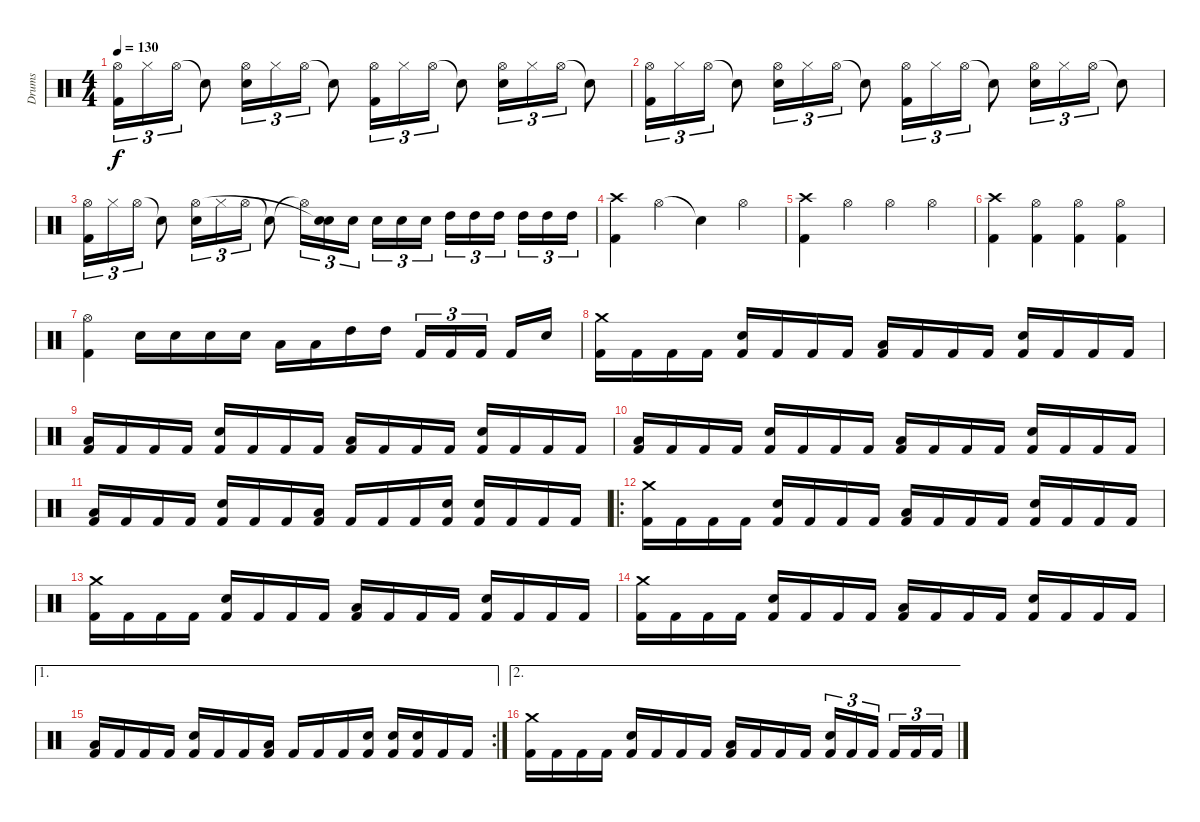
\track ("Drums" "Drums") {instrument percussion}
\staff {score}
\articulation defaults
\ts (4 4)
\tempo 130
\clef neutral
\ks c
("Kick (hit) 2" "Hi-Hat (open)").16{tu (3 2) dy f} "Hi-Hat (closed)".16{tu (3 2)} "Hi-Hat (open)".16{tu (3 2)} "Snare (hit)"{t}.8 ("Snare (hit) 2" "Hi-Hat (open)").16{tu (3 2)} "Hi-Hat (closed)".16{tu (3 2)} "Hi-Hat (open)".16{tu (3 2)} "Snare (hit)"{t}.8 ("Kick (hit) 2" "Hi-Hat (open)").16{tu (3 2)} "Hi-Hat (closed)".16{tu (3 2)} "Hi-Hat (open)".16{tu (3 2)} "Snare (hit)"{t}.8 ("Snare (hit) 2" "Hi-Hat (open)").16{tu (3 2)} "Hi-Hat (closed)".16{tu (3 2)} "Hi-Hat (open)".16{tu (3 2)} "Snare (hit)"{t}.8 |
("Kick (hit) 2" "Hi-Hat (open)").16{tu (3 2)} "Hi-Hat (closed)".16{tu (3 2)} "Hi-Hat (open)".16{tu (3 2)} "Snare (hit)"{t}.8 ("Snare (hit) 2" "Hi-Hat (open)").16{tu (3 2)} "Hi-Hat (closed)".16{tu (3 2)} "Hi-Hat (open)".16{tu (3 2)} "Snare (hit)"{t}.8 ("Kick (hit) 2" "Hi-Hat (open)").16{tu (3 2)} "Hi-Hat (closed)".16{tu (3 2)} "Hi-Hat (open)".16{tu (3 2)} "Snare (hit)"{t}.8 ("Snare (hit) 2" "Hi-Hat (open)").16{tu (3 2)} "Hi-Hat (closed)".16{tu (3 2)} "Hi-Hat (open)".16{tu (3 2)} "Snare (hit)"{t}.8 |
("Kick (hit) 2" "Hi-Hat (open)").16{tu (3 2)} "Hi-Hat (closed)".16{tu (3 2)} "Hi-Hat (open)".16{tu (3 2)} "Snare (hit)"{t}.8 ("Snare (hit) 2" "Hi-Hat (open)").16{tu (3 2)} "Hi-Hat (closed)".16{tu (3 2)} "Hi-Hat (open)".16{tu (3 2)} "Snare (hit)"{t}.8 "Hi-Hat (open)"{t}.16{tu (3 2)} ("Snare (hit) 2" "Snare (hit)"{t}).16{tu (3 2)} "Snare (hit) 2".16{tu (3 2)} "Snare (hit) 2".16{tu (3 2)} "Snare (hit) 2".16{tu (3 2)} "Snare (hit) 2".16{tu (3 2)} "High Tom (hit)".16{tu (3 2)} "High Tom (hit)".16{tu (3 2)} "High Tom (hit)".16{tu (3 2)} "High Tom (hit)".16{tu (3 2)} "High Tom (hit)".16{tu (3 2)} "High Tom (hit)".16{tu (3 2)} |
("Kick (hit) 2" "Crash high (hit)").4 "Hi-Hat (open)".4 "Snare (hit)"{t}.4 "Hi-Hat (open)".4 |
("Kick (hit) 2" "Crash high (hit)").4 "Hi-Hat (open)".4 "Hi-Hat (open)".4 "Hi-Hat (open)".4 |
("Kick (hit) 2" "Crash high (hit)").4 ("Kick (hit) 2" "Hi-Hat (open)").4 ("Kick (hit) 2" "Hi-Hat (open)").4 ("Kick (hit) 2" "Hi-Hat (open)").4 |
("Kick (hit) 2" "Hi-Hat (open)").4 "Snare (hit) 2".16 "Snare (hit) 2".16 "Snare (hit) 2".16 "Snare (hit) 2".16 "Low Tom (hit)".16 "Low Tom (hit)".16 "High Tom (hit)".16 "High Tom (hit)".16 "Kick (hit) 2".16{tu (3 2)} "Kick (hit) 2".16{tu (3 2)} "Kick (hit) 2".16{tu (3 2)} "Kick (hit) 2".16 "Snare (hit) 2".16 |
("Kick (hit) 2" "Crash medium (hit)").16 "Kick (hit) 2".16 "Kick (hit) 2".16 "Kick (hit) 2".16 ("Kick (hit) 2" "Snare (hit) 2").16 "Kick (hit) 2".16 "Kick (hit) 2".16 "Kick (hit) 2".16 ("Kick (hit) 2" "Low Floor Tom (hit)").16 "Kick (hit) 2".16 "Kick (hit) 2".16 "Kick (hit) 2".16 ("Kick (hit) 2" "Snare (hit) 2").16 "Kick (hit) 2".16 "Kick (hit) 2".16 "Kick (hit) 2".16 |
("Kick (hit) 2" "Low Floor Tom (hit)").16 "Kick (hit) 2".16 "Kick (hit) 2".16 "Kick (hit) 2".16 ("Kick (hit) 2" "Snare (hit) 2").16 "Kick (hit) 2".16 "Kick (hit) 2".16 "Kick (hit) 2".16 ("Kick (hit) 2" "Low Floor Tom (hit)").16 "Kick (hit) 2".16 "Kick (hit) 2".16 "Kick (hit) 2".16 ("Kick (hit) 2" "Snare (hit) 2").16 "Kick (hit) 2".16 "Kick (hit) 2".16 "Kick (hit) 2".16 |
("Kick (hit) 2" "Low Floor Tom (hit)").16 "Kick (hit) 2".16 "Kick (hit) 2".16 "Kick (hit) 2".16 ("Kick (hit) 2" "Snare (hit) 2").16 "Kick (hit) 2".16 "Kick (hit) 2".16 "Kick (hit) 2".16 ("Kick (hit) 2" "Low Floor Tom (hit)").16 "Kick (hit) 2".16 "Kick (hit) 2".16 "Kick (hit) 2".16 ("Kick (hit) 2" "Snare (hit) 2").16 "Kick (hit) 2".16 "Kick (hit) 2".16 "Kick (hit) 2".16 |
("Kick (hit) 2" "Low Floor Tom (hit)").16 "Kick (hit) 2".16 "Kick (hit) 2".16 "Kick (hit) 2".16 ("Kick (hit) 2" "Snare (hit) 2").16 "Kick (hit) 2".16 "Kick (hit) 2".16 ("Kick (hit) 2" "Low Floor Tom (hit)").16 "Kick (hit) 2".16 "Kick (hit) 2".16 "Kick (hit) 2".16 ("Kick (hit) 2" "Snare (hit) 2").16 ("Kick (hit) 2" "Snare (hit) 2").16 "Kick (hit) 2".16 "Kick (hit) 2".16 "Kick (hit) 2".16 |
\ro
("Kick (hit) 2" "Crash medium (hit)").16 "Kick (hit) 2".16 "Kick (hit) 2".16 "Kick (hit) 2".16 ("Kick (hit) 2" "Snare (hit) 2").16 "Kick (hit) 2".16 "Kick (hit) 2".16 "Kick (hit) 2".16 ("Kick (hit) 2" "Low Floor Tom (hit)").16 "Kick (hit) 2".16 "Kick (hit) 2".16 "Kick (hit) 2".16 ("Kick (hit) 2" "Snare (hit) 2").16 "Kick (hit) 2".16 "Kick (hit) 2".16 "Kick (hit) 2".16 |
("Kick (hit) 2" "Crash medium (hit)").16 "Kick (hit) 2".16 "Kick (hit) 2".16 "Kick (hit) 2".16 ("Kick (hit) 2" "Snare (hit) 2").16 "Kick (hit) 2".16 "Kick (hit) 2".16 "Kick (hit) 2".16 ("Kick (hit) 2" "Low Floor Tom (hit)").16 "Kick (hit) 2".16 "Kick (hit) 2".16 "Kick (hit) 2".16 ("Kick (hit) 2" "Snare (hit) 2").16 "Kick (hit) 2".16 "Kick (hit) 2".16 "Kick (hit) 2".16 |
("Kick (hit) 2" "Crash medium (hit)").16 "Kick (hit) 2".16 "Kick (hit) 2".16 "Kick (hit) 2".16 ("Kick (hit) 2" "Snare (hit) 2").16 "Kick (hit) 2".16 "Kick (hit) 2".16 "Kick (hit) 2".16 ("Kick (hit) 2" "Low Floor Tom (hit)").16 "Kick (hit) 2".16 "Kick (hit) 2".16 "Kick (hit) 2".16 ("Kick (hit) 2" "Snare (hit) 2").16 "Kick (hit) 2".16 "Kick (hit) 2".16 "Kick (hit) 2".16 |
\ae 1
\rc 2
("Kick (hit) 2" "Low Floor Tom (hit)").16 "Kick (hit) 2".16 "Kick (hit) 2".16 "Kick (hit) 2".16 ("Kick (hit) 2" "Snare (hit) 2").16 "Kick (hit) 2".16 "Kick (hit) 2".16 ("Kick (hit) 2" "Low Floor Tom (hit)").16 "Kick (hit) 2".16 "Kick (hit) 2".16 "Kick (hit) 2".16 ("Kick (hit) 2" "Snare (hit) 2").16 ("Kick (hit) 2" "Snare (hit) 2").16 ("Kick (hit) 2" "Snare (hit) 2").16 "Kick (hit) 2".16 "Kick (hit) 2".16 |
\ae 2
("Kick (hit) 2" "Crash medium (hit)").16 "Kick (hit) 2".16 "Kick (hit) 2".16 "Kick (hit) 2".16 ("Kick (hit) 2" "Snare (hit) 2").16 "Kick (hit) 2".16 "Kick (hit) 2".16 "Kick (hit) 2".16 ("Kick (hit) 2" "Low Floor Tom (hit)").16 "Kick (hit) 2".16 "Kick (hit) 2".16 "Kick (hit) 2".16 ("Kick (hit) 2" "Snare (hit) 2").16{tu (3 2)} "Kick (hit) 2".16{tu (3 2)} "Kick (hit) 2".16{tu (3 2)} "Kick (hit) 2".16{tu (3 2)} "Kick (hit) 2".16{tu (3 2)} "Kick (hit) 2".16{tu (3 2)}
